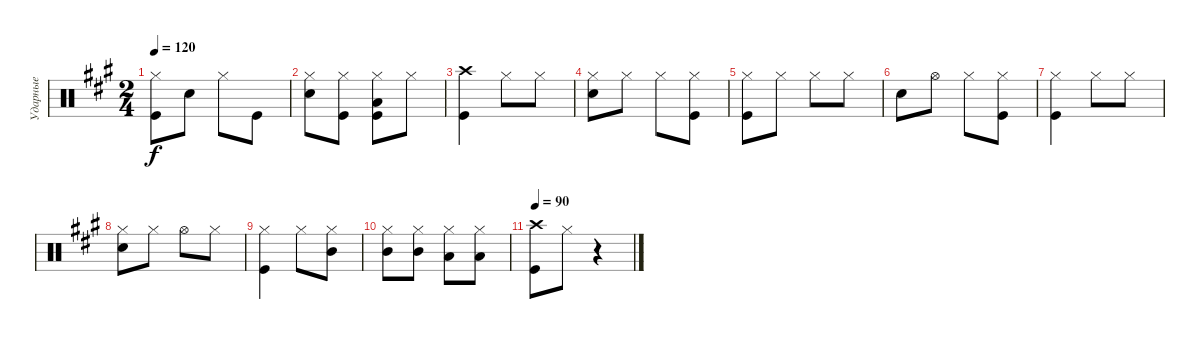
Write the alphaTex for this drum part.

\track ("Ударные" "Ударные") {instrument percussion}
\staff {score}
\articulation defaults
\ts (2 4)
\tempo 120
\clef neutral
\ks f#minor
("Kick (hit)" "Hi-Hat (closed)").8{dy f} "Snare (hit) 2".8 "Hi-Hat (closed)".8 "Kick (hit)".8 |
("Hi-Hat (closed)" "Snare (hit) 2").8 ("Hi-Hat (closed)" "Kick (hit)").8 ("Hi-Hat (closed)" "Low Tom (hit)" "Kick (hit)").8 "Hi-Hat (closed)".8 |
("Kick (hit)" "Crash high (hit)").4 "Hi-Hat (closed)".8 "Hi-Hat (closed)".8 |
("Snare (hit) 2" "Hi-Hat (closed)").8 "Hi-Hat (closed)".8 "Hi-Hat (closed)".8 ("Kick (hit)" "Hi-Hat (closed)").8 |
("Hi-Hat (closed)" "Kick (hit)").8 "Hi-Hat (closed)".8 "Hi-Hat (closed)".8 "Hi-Hat (closed)".8 |
"Snare (hit) 2".8 "Hi-Hat (open)".8 "Hi-Hat (closed)".8 ("Hi-Hat (closed)" "Kick (hit)").8 |
("Kick (hit)" "Hi-Hat (closed)").4 "Hi-Hat (closed)".8 "Hi-Hat (closed)".8 |
("Hi-Hat (closed)" "Snare (hit) 2").8 "Hi-Hat (closed)".8 "Hi-Hat (open)".8 "Hi-Hat (closed)".8 |
("Kick (hit)" "Hi-Hat (closed)").4 "Hi-Hat (closed)".8 ("Mid Tom (hit)" "Hi-Hat (closed)").8 |
("Mid Tom (hit)" "Hi-Hat (closed)").8 ("Mid Tom (hit)" "Hi-Hat (closed)").8 ("Low Tom (hit)" "Hi-Hat (closed)").8 ("Low Tom (hit)" "Hi-Hat (closed)").8 |
\tempo 90
("Kick (hit)" "Crash high (hit)").8 "Hi-Hat (closed)".8 r.4
